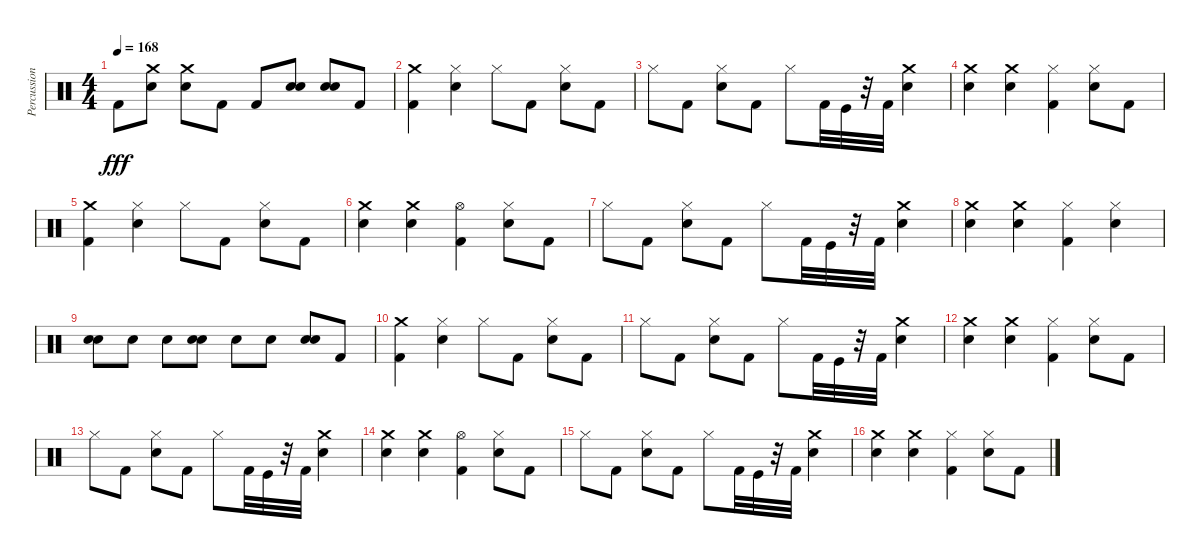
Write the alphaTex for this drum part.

\track ("Percussion" "Percussion") {instrument percussion}
\staff {score}
\articulation defaults
\ts (4 4)
\tempo 168
\clef neutral
\ks c "Kick (hit) 2".8{dy fff}
("Snare (hit) 2" "Crash medium (hit)").8 ("Snare (hit) 2" "Crash medium (hit)").8 "Kick (hit) 2".8 "Kick (hit) 2".8 ("Snare (hit) 2" "Snare (hit) 2").8 ("Snare (hit) 2" "Snare (hit) 2").8 "Kick (hit) 2".8 |
("Kick (hit) 2" "Crash medium (hit)").4 ("Hi-Hat (closed)" "Snare (hit) 2").4 "Hi-Hat (closed)".8 "Kick (hit) 2".8 ("Snare (hit) 2" "Hi-Hat (closed)").8 "Kick (hit) 2".8 |
"Hi-Hat (closed)".8 "Kick (hit) 2".8 ("Snare (hit) 2" "Hi-Hat (closed)").8 "Kick (hit) 2".8 "Hi-Hat (closed)".8 "Kick (hit) 2".32 "Kick (hit)".32 r.32 "Kick (hit) 2".32 ("Crash medium (hit)" "Snare (hit) 2").4 |
("Crash medium (hit)" "Snare (hit) 2").4 ("Crash medium (hit)" "Snare (hit) 2").4 ("Hi-Hat (closed)" "Kick (hit) 2").4 ("Snare (hit) 2" "Hi-Hat (closed)").8 "Kick (hit) 2".8 |
("Kick (hit) 2" "Crash medium (hit)").4 ("Hi-Hat (closed)" "Snare (hit) 2").4 "Hi-Hat (closed)".8 "Kick (hit) 2".8 ("Snare (hit) 2" "Hi-Hat (closed)").8 "Kick (hit) 2".8 |
("Crash medium (hit)" "Snare (hit) 2").4 ("Crash medium (hit)" "Snare (hit) 2").4 ("Hi-Hat (open)" "Kick (hit) 2").4 ("Snare (hit) 2" "Hi-Hat (closed)").8 "Kick (hit) 2".8 |
"Hi-Hat (closed)".8 "Kick (hit) 2".8 ("Snare (hit) 2" "Hi-Hat (closed)").8 "Kick (hit) 2".8 "Hi-Hat (closed)".8 "Kick (hit) 2".32 "Kick (hit)".32 r.32 "Kick (hit) 2".32 ("Crash medium (hit)" "Snare (hit) 2").4 |
("Snare (hit) 2" "Crash medium (hit)").4 ("Snare (hit) 2" "Crash medium (hit)").4 ("Kick (hit) 2" "Hi-Hat (closed)").4 ("Hi-Hat (closed)" "Snare (hit) 2").4 |
("Snare (hit) 2" "Snare (hit) 2").8 "Snare (hit) 2".8 "Snare (hit) 2".8 ("Snare (hit) 2" "Snare (hit) 2").8 "Snare (hit) 2".8 "Snare (hit) 2".8 ("Snare (hit) 2" "Snare (hit) 2").8 "Kick (hit) 2".8 |
("Kick (hit) 2" "Crash medium (hit)").4 ("Hi-Hat (closed)" "Snare (hit) 2").4 "Hi-Hat (closed)".8 "Kick (hit) 2".8 ("Snare (hit) 2" "Hi-Hat (closed)").8 "Kick (hit) 2".8 |
"Hi-Hat (closed)".8 "Kick (hit) 2".8 ("Snare (hit) 2" "Hi-Hat (closed)").8 "Kick (hit) 2".8 "Hi-Hat (closed)".8 "Kick (hit) 2".32 "Kick (hit)".32 r.32 "Kick (hit) 2".32 ("Crash medium (hit)" "Snare (hit) 2").4 |
("Crash medium (hit)" "Snare (hit) 2").4 ("Crash medium (hit)" "Snare (hit) 2").4 ("Hi-Hat (closed)" "Kick (hit) 2").4 ("Snare (hit) 2" "Hi-Hat (closed)").8 "Kick (hit) 2".8 |
"Hi-Hat (closed)".8 "Kick (hit) 2".8 ("Snare (hit) 2" "Hi-Hat (closed)").8 "Kick (hit) 2".8 "Hi-Hat (closed)".8 "Kick (hit) 2".32 "Kick (hit)".32 r.32 "Kick (hit) 2".32 ("Crash medium (hit)" "Snare (hit) 2").4 |
("Crash medium (hit)" "Snare (hit) 2").4 ("Crash medium (hit)" "Snare (hit) 2").4 ("Hi-Hat (open)" "Kick (hit) 2").4 ("Snare (hit) 2" "Hi-Hat (closed)").8 "Kick (hit) 2".8 |
"Hi-Hat (closed)".8 "Kick (hit) 2".8 ("Snare (hit) 2" "Hi-Hat (closed)").8 "Kick (hit) 2".8 "Hi-Hat (closed)".8 "Kick (hit) 2".32 "Kick (hit)".32 r.32 "Kick (hit) 2".32 ("Crash medium (hit)" "Snare (hit) 2").4 |
("Crash medium (hit)" "Snare (hit) 2").4 ("Crash medium (hit)" "Snare (hit) 2").4 ("Hi-Hat (closed)" "Kick (hit) 2").4 ("Snare (hit) 2" "Hi-Hat (closed)").8 "Kick (hit) 2".8
